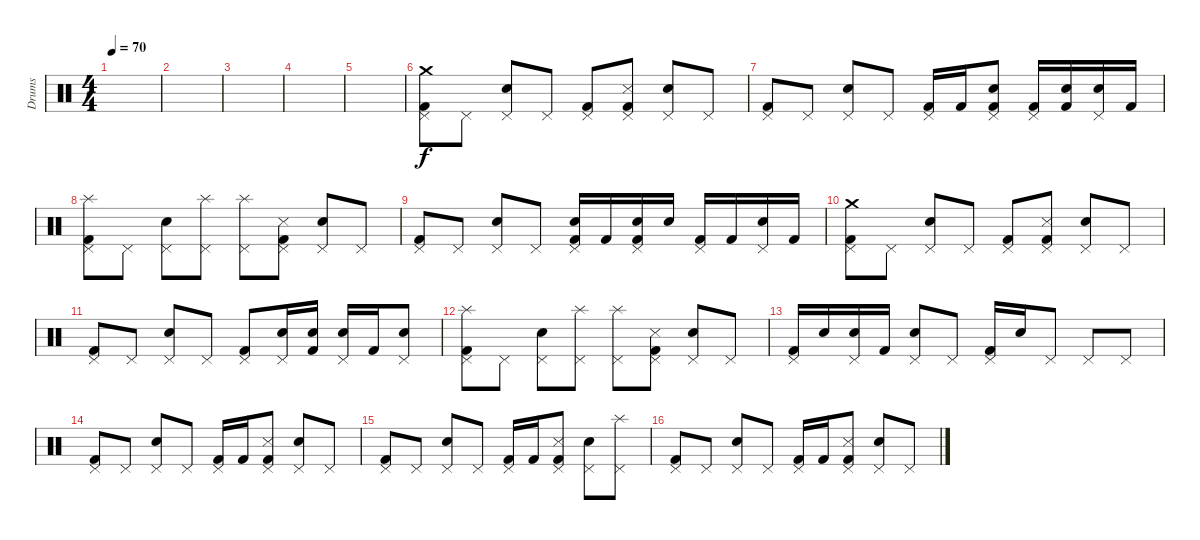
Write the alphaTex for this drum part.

\track ("Drums" "Drums") {instrument percussion}
\staff {score}
\articulation defaults
\ts (4 4)
\tempo 70
\clef neutral
\ks c
|
|
|
|
|
("Pedal Hi-Hat (hit)" "Kick (hit) 2" "Crash medium (hit)").8 "Pedal Hi-Hat (hit)".8 ("Pedal Hi-Hat (hit)" "Electric Snare (hit)").8 "Pedal Hi-Hat (hit)".8 ("Pedal Hi-Hat (hit)" "Kick (hit) 2").8 ("Pedal Hi-Hat (hit)" "Kick (hit) 2" "Metronome (hit)").8 ("Pedal Hi-Hat (hit)" "Electric Snare (hit)").8 "Pedal Hi-Hat (hit)".8 |
("Pedal Hi-Hat (hit)" "Kick (hit) 2").8 "Pedal Hi-Hat (hit)".8 ("Pedal Hi-Hat (hit)" "Electric Snare (hit)").8 "Pedal Hi-Hat (hit)".8 ("Pedal Hi-Hat (hit)" "Kick (hit) 2").16 "Kick (hit) 2".16 ("Pedal Hi-Hat (hit)" "Kick (hit) 2" "Electric Snare (hit)").8 ("Pedal Hi-Hat (hit)" "Kick (hit) 2").16 ("Kick (hit) 2" "Electric Snare (hit)").16 ("Pedal Hi-Hat (hit)" "Electric Snare (hit)").16 "Kick (hit) 2".16 |
("Pedal Hi-Hat (hit)" "Kick (hit) 2" "Splash (hit)").8 "Pedal Hi-Hat (hit)".8 ("Pedal Hi-Hat (hit)" "Electric Snare (hit)").8 ("Pedal Hi-Hat (hit)" "Splash (hit)").8 ("Pedal Hi-Hat (hit)" "Splash (hit)").8 ("Pedal Hi-Hat (hit)" "Kick (hit) 2" "Metronome (hit)").8 ("Pedal Hi-Hat (hit)" "Electric Snare (hit)").8 "Pedal Hi-Hat (hit)".8 |
("Pedal Hi-Hat (hit)" "Kick (hit) 2").8 "Pedal Hi-Hat (hit)".8 ("Pedal Hi-Hat (hit)" "Electric Snare (hit)").8 "Pedal Hi-Hat (hit)".8 ("Pedal Hi-Hat (hit)" "Kick (hit) 2" "Electric Snare (hit)").16 "Kick (hit) 2".16 ("Pedal Hi-Hat (hit)" "Kick (hit) 2" "Electric Snare (hit)").16 "Electric Snare (hit)".16 ("Pedal Hi-Hat (hit)" "Kick (hit) 2").16 "Kick (hit) 2".16 ("Pedal Hi-Hat (hit)" "Electric Snare (hit)").16 "Kick (hit) 2".16 |
("Pedal Hi-Hat (hit)" "Kick (hit) 2" "Crash medium (hit)").8 "Pedal Hi-Hat (hit)".8 ("Pedal Hi-Hat (hit)" "Electric Snare (hit)").8 "Pedal Hi-Hat (hit)".8 ("Pedal Hi-Hat (hit)" "Kick (hit) 2").8 ("Pedal Hi-Hat (hit)" "Kick (hit) 2" "Metronome (hit)").8 ("Pedal Hi-Hat (hit)" "Electric Snare (hit)").8 "Pedal Hi-Hat (hit)".8 |
("Pedal Hi-Hat (hit)" "Kick (hit) 2").8 "Pedal Hi-Hat (hit)".8 ("Pedal Hi-Hat (hit)" "Electric Snare (hit)").8 "Pedal Hi-Hat (hit)".8 ("Pedal Hi-Hat (hit)" "Kick (hit) 2").8 ("Pedal Hi-Hat (hit)" "Electric Snare (hit)").16 ("Kick (hit) 2" "Electric Snare (hit)").16 ("Pedal Hi-Hat (hit)" "Electric Snare (hit)").16 "Kick (hit) 2".16 ("Pedal Hi-Hat (hit)" "Electric Snare (hit)").8 |
("Pedal Hi-Hat (hit)" "Kick (hit) 2" "Splash (hit)").8 "Pedal Hi-Hat (hit)".8 ("Pedal Hi-Hat (hit)" "Electric Snare (hit)").8 ("Pedal Hi-Hat (hit)" "Splash (hit)").8 ("Pedal Hi-Hat (hit)" "Splash (hit)").8 ("Pedal Hi-Hat (hit)" "Kick (hit) 2" "Metronome (hit)").8 ("Pedal Hi-Hat (hit)" "Electric Snare (hit)").8 "Pedal Hi-Hat (hit)".8 |
("Pedal Hi-Hat (hit)" "Kick (hit) 2").16 "Electric Snare (hit)".16 ("Pedal Hi-Hat (hit)" "Electric Snare (hit)").16 "Kick (hit) 2".16 ("Pedal Hi-Hat (hit)" "Electric Snare (hit)").8 "Pedal Hi-Hat (hit)".8 ("Pedal Hi-Hat (hit)" "Kick (hit) 2").16 "Electric Snare (hit)".16 "Pedal Hi-Hat (hit)".8 "Pedal Hi-Hat (hit)".8 "Pedal Hi-Hat (hit)".8 |
("Pedal Hi-Hat (hit)" "Kick (hit) 2").8 "Pedal Hi-Hat (hit)".8 ("Pedal Hi-Hat (hit)" "Electric Snare (hit)").8 "Pedal Hi-Hat (hit)".8 ("Pedal Hi-Hat (hit)" "Kick (hit) 2").16 "Kick (hit) 2".16 ("Pedal Hi-Hat (hit)" "Kick (hit) 2" "Metronome (hit)").8 ("Pedal Hi-Hat (hit)" "Electric Snare (hit)").8 "Pedal Hi-Hat (hit)".8 |
("Pedal Hi-Hat (hit)" "Kick (hit) 2").8 "Pedal Hi-Hat (hit)".8 ("Pedal Hi-Hat (hit)" "Electric Snare (hit)").8 "Pedal Hi-Hat (hit)".8 ("Pedal Hi-Hat (hit)" "Kick (hit) 2").16 "Kick (hit) 2".16 ("Pedal Hi-Hat (hit)" "Kick (hit) 2" "Metronome (hit)").8 ("Pedal Hi-Hat (hit)" "Electric Snare (hit)").8 ("Pedal Hi-Hat (hit)" "Splash (hit)").8 |
("Pedal Hi-Hat (hit)" "Kick (hit) 2").8 "Pedal Hi-Hat (hit)".8 ("Pedal Hi-Hat (hit)" "Electric Snare (hit)").8 "Pedal Hi-Hat (hit)".8 ("Pedal Hi-Hat (hit)" "Kick (hit) 2").16 "Kick (hit) 2".16 ("Pedal Hi-Hat (hit)" "Kick (hit) 2" "Metronome (hit)").8 ("Pedal Hi-Hat (hit)" "Electric Snare (hit)").8 "Pedal Hi-Hat (hit)".8
